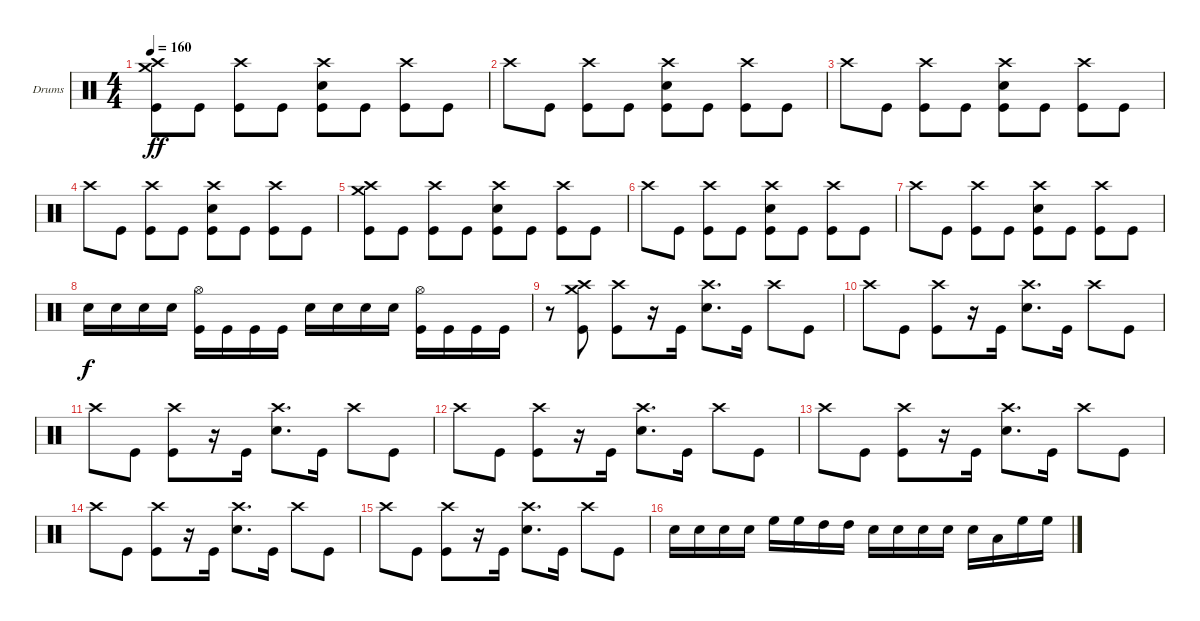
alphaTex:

\defaultSystemsLayout 4
\bracketExtendMode groupsimilarinstruments
\firstSystemTrackNameOrientation horizontal
\otherSystemsTrackNameOrientation horizontal
\track ("Moe Carlson" "Drums") {instrument percussion}
\staff {score}
\articulation defaults
\ts (4 4)
\tempo 160
\clef neutral
\ks c
("Crash high (hit)" "Crash medium (hit)" "Kick (hit)").8{dy ff} "Kick (hit)".8 ("Kick (hit)" "Crash high (hit)").8 "Kick (hit)".8 ("Kick (hit)" "Crash high (hit)" "Snare (hit) 2").8 "Kick (hit)".8 ("Kick (hit)" "Crash high (hit)").8 "Kick (hit)".8 |
"Crash high (hit)".8 "Kick (hit)".8 ("Kick (hit)" "Crash high (hit)").8 "Kick (hit)".8 ("Kick (hit)" "Crash high (hit)" "Snare (hit) 2").8 "Kick (hit)".8 ("Kick (hit)" "Crash high (hit)").8 "Kick (hit)".8 |
"Crash high (hit)".8 "Kick (hit)".8 ("Kick (hit)" "Crash high (hit)").8 "Kick (hit)".8 ("Kick (hit)" "Crash high (hit)" "Snare (hit) 2").8 "Kick (hit)".8 ("Kick (hit)" "Crash high (hit)").8 "Kick (hit)".8 |
"Crash high (hit)".8 "Kick (hit)".8 ("Kick (hit)" "Crash high (hit)").8 "Kick (hit)".8 ("Kick (hit)" "Crash high (hit)" "Snare (hit) 2").8 "Kick (hit)".8 ("Kick (hit)" "Crash high (hit)").8 "Kick (hit)".8 |
("Crash high (hit)" "Crash medium (hit)" "Kick (hit)").8 "Kick (hit)".8 ("Kick (hit)" "Crash high (hit)").8 "Kick (hit)".8 ("Kick (hit)" "Crash high (hit)" "Snare (hit) 2").8 "Kick (hit)".8 ("Kick (hit)" "Crash high (hit)").8 "Kick (hit)".8 |
"Crash high (hit)".8 "Kick (hit)".8 ("Kick (hit)" "Crash high (hit)").8 "Kick (hit)".8 ("Kick (hit)" "Crash high (hit)" "Snare (hit) 2").8 "Kick (hit)".8 ("Kick (hit)" "Crash high (hit)").8 "Kick (hit)".8 |
"Crash high (hit)".8 "Kick (hit)".8 ("Kick (hit)" "Crash high (hit)").8 "Kick (hit)".8 ("Kick (hit)" "Crash high (hit)" "Snare (hit) 2").8 "Kick (hit)".8 ("Kick (hit)" "Crash high (hit)").8 "Kick (hit)".8 |
"Snare (hit) 2".16{dy f} "Snare (hit) 2".16 "Snare (hit) 2".16 "Snare (hit) 2".16 ("Hi-Hat (open)" "Kick (hit)").16 "Kick (hit)".16 "Kick (hit)".16 "Kick (hit)".16 "Snare (hit) 2".16 "Snare (hit) 2".16 "Snare (hit) 2".16 "Snare (hit) 2".16 ("Hi-Hat (open)" "Kick (hit)").16 "Kick (hit)".16 "Kick (hit)".16 "Kick (hit)".16 |
r.8 ("Crash medium (hit)" "Crash high (hit)" "Kick (hit)").8 ("Kick (hit)" "Crash high (hit)").8 r.16 "Kick (hit)".16 ("Snare (hit) 2" "Crash high (hit)").8{d} "Kick (hit)".16 "Crash high (hit)".8 "Kick (hit)".8 |
"Crash high (hit)".8 "Kick (hit)".8 ("Kick (hit)" "Crash high (hit)").8 r.16 "Kick (hit)".16 ("Snare (hit) 2" "Crash high (hit)").8{d} "Kick (hit)".16 "Crash high (hit)".8 "Kick (hit)".8 |
"Crash high (hit)".8 "Kick (hit)".8 ("Kick (hit)" "Crash high (hit)").8 r.16 "Kick (hit)".16 ("Snare (hit) 2" "Crash high (hit)").8{d} "Kick (hit)".16 "Crash high (hit)".8 "Kick (hit)".8 |
"Crash high (hit)".8 "Kick (hit)".8 ("Kick (hit)" "Crash high (hit)").8 r.16 "Kick (hit)".16 ("Snare (hit) 2" "Crash high (hit)").8{d} "Kick (hit)".16 "Crash high (hit)".8 "Kick (hit)".8 |
"Crash high (hit)".8 "Kick (hit)".8 ("Kick (hit)" "Crash high (hit)").8 r.16 "Kick (hit)".16 ("Snare (hit) 2" "Crash high (hit)").8{d} "Kick (hit)".16 "Crash high (hit)".8 "Kick (hit)".8 |
"Crash high (hit)".8 "Kick (hit)".8 ("Kick (hit)" "Crash high (hit)").8 r.16 "Kick (hit)".16 ("Snare (hit) 2" "Crash high (hit)").8{d} "Kick (hit)".16 "Crash high (hit)".8 "Kick (hit)".8 |
"Crash high (hit)".8 "Kick (hit)".8 ("Kick (hit)" "Crash high (hit)").8 r.16 "Kick (hit)".16 ("Snare (hit) 2" "Crash high (hit)").8{d} "Kick (hit)".16 "Crash high (hit)".8 "Kick (hit)".8 |
"Snare (hit) 2".16 "Snare (hit) 2".16 "Snare (hit) 2".16 "Snare (hit) 2".16 "High Floor Tom (hit)".16 "High Floor Tom (hit)".16 "High Tom (hit)".16 "High Tom (hit)".16 "Snare (hit) 2".16 "Snare (hit) 2".16 "Snare (hit) 2".16 "Snare (hit) 2".16 "Snare (hit) 2".16 "Low Tom (hit)".16 "High Floor Tom (hit)".16 "High Floor Tom (hit)".16
